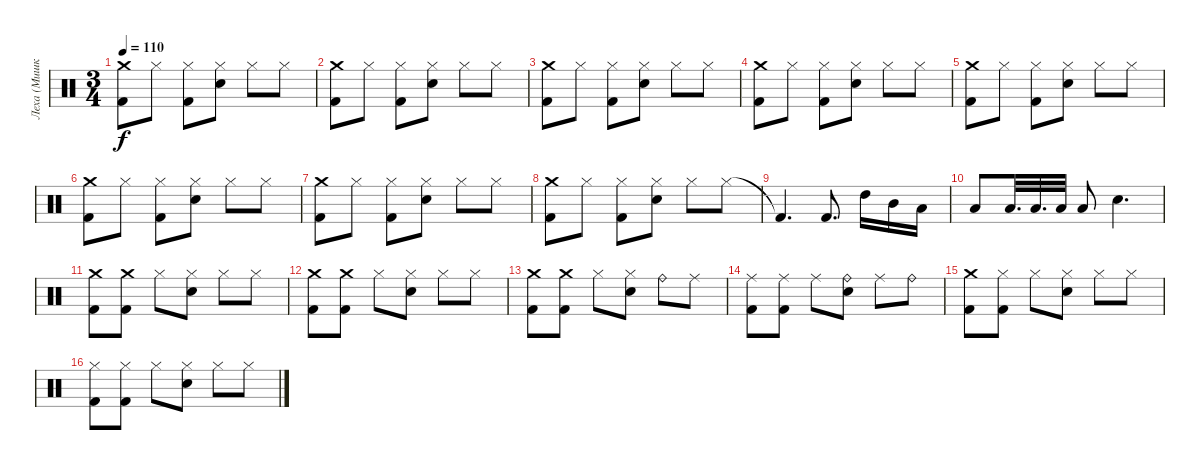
\track ("Леха (Мишка Гами)" "Леха (Мишк") {instrument percussion}
\staff {score}
\articulation defaults
\ts (3 4)
\tempo 110
\clef neutral
\ks c
("Crash medium (hit)" "Kick (hit) 2").8{dy f} "Hi-Hat (closed)".8 ("Hi-Hat (closed)" "Kick (hit) 2").8 ("Hi-Hat (closed)" "Snare (hit) 2").8 "Hi-Hat (closed)".8 "Hi-Hat (closed)".8 |
("Crash medium (hit)" "Kick (hit) 2").8 "Hi-Hat (closed)".8 ("Hi-Hat (closed)" "Kick (hit) 2").8 ("Hi-Hat (closed)" "Snare (hit) 2").8 "Hi-Hat (closed)".8 "Hi-Hat (closed)".8 |
("Crash medium (hit)" "Kick (hit) 2").8 "Hi-Hat (closed)".8 ("Hi-Hat (closed)" "Kick (hit) 2").8 ("Hi-Hat (closed)" "Snare (hit) 2").8 "Hi-Hat (closed)".8 "Hi-Hat (closed)".8 |
("Crash medium (hit)" "Kick (hit) 2").8 "Hi-Hat (closed)".8 ("Hi-Hat (closed)" "Kick (hit) 2").8 ("Hi-Hat (closed)" "Snare (hit) 2").8 "Hi-Hat (closed)".8 "Hi-Hat (closed)".8 |
("Crash medium (hit)" "Kick (hit) 2").8 "Hi-Hat (closed)".8 ("Hi-Hat (closed)" "Kick (hit) 2").8 ("Hi-Hat (closed)" "Snare (hit) 2").8 "Hi-Hat (closed)".8 "Hi-Hat (closed)".8 |
("Crash medium (hit)" "Kick (hit) 2").8 "Hi-Hat (closed)".8 ("Hi-Hat (closed)" "Kick (hit) 2").8 ("Hi-Hat (closed)" "Snare (hit) 2").8 "Hi-Hat (closed)".8 "Hi-Hat (closed)".8 |
("Crash medium (hit)" "Kick (hit) 2").8 "Hi-Hat (closed)".8 ("Hi-Hat (closed)" "Kick (hit) 2").8 ("Hi-Hat (closed)" "Snare (hit) 2").8 "Hi-Hat (closed)".8 "Hi-Hat (closed)".8 |
("Crash medium (hit)" "Kick (hit) 2").8 "Hi-Hat (closed)".8 ("Hi-Hat (closed)" "Kick (hit) 2").8 ("Hi-Hat (closed)" "Snare (hit) 2").8 "Hi-Hat (closed)".8 "Hi-Hat (closed)".8 |
"Kick (hit) 2"{t}.4{d} "Kick (hit) 2".8{d} "High Tom (hit)".16 "Mid Tom (hit)".16 "Low Tom (hit)".16 |
"Low Tom (hit)".8 "Low Tom (hit)".32{d} "Low Tom (hit)".32{d} "Low Tom (hit)".32 "Low Tom (hit)".8 "Snare (hit) 2".4{d} |
("Crash medium (hit)" "Kick (hit) 2").8 ("Crash medium (hit)" "Kick (hit) 2").8 "Hi-Hat (closed)".8 ("Hi-Hat (closed)" "Snare (hit) 2").8 "Hi-Hat (closed)".8 "Hi-Hat (closed)".8 |
("Crash medium (hit)" "Kick (hit) 2").8 ("Crash medium (hit)" "Kick (hit) 2").8 "Hi-Hat (closed)".8 ("Hi-Hat (closed)" "Snare (hit) 2").8 "Hi-Hat (closed)".8 "Hi-Hat (closed)".8 |
("Crash medium (hit)" "Kick (hit) 2").8 ("Crash medium (hit)" "Kick (hit) 2").8 "Hi-Hat (closed)".8 ("Hi-Hat (closed)" "Snare (hit) 2").8 "Ride (bell)".8 "Ride (middle)".8 |
("Ride (middle)" "Kick (hit) 2").8 ("Ride (middle)" "Kick (hit) 2").8 "Ride (middle)".8 ("Ride (bell)" "Snare (hit) 2").8 "Ride (middle)".8 "Ride (bell)".8 |
("Crash medium (hit)" "Kick (hit) 2").8 ("Hi-Hat (closed)" "Kick (hit) 2").8 "Hi-Hat (closed)".8 ("Hi-Hat (closed)" "Snare (hit) 2").8 "Hi-Hat (closed)".8 "Hi-Hat (closed)".8 |
("Hi-Hat (closed)" "Kick (hit) 2").8 ("Hi-Hat (closed)" "Kick (hit) 2").8 "Hi-Hat (closed)".8 ("Hi-Hat (closed)" "Snare (hit) 2").8 "Hi-Hat (closed)".8 "Hi-Hat (closed)".8
